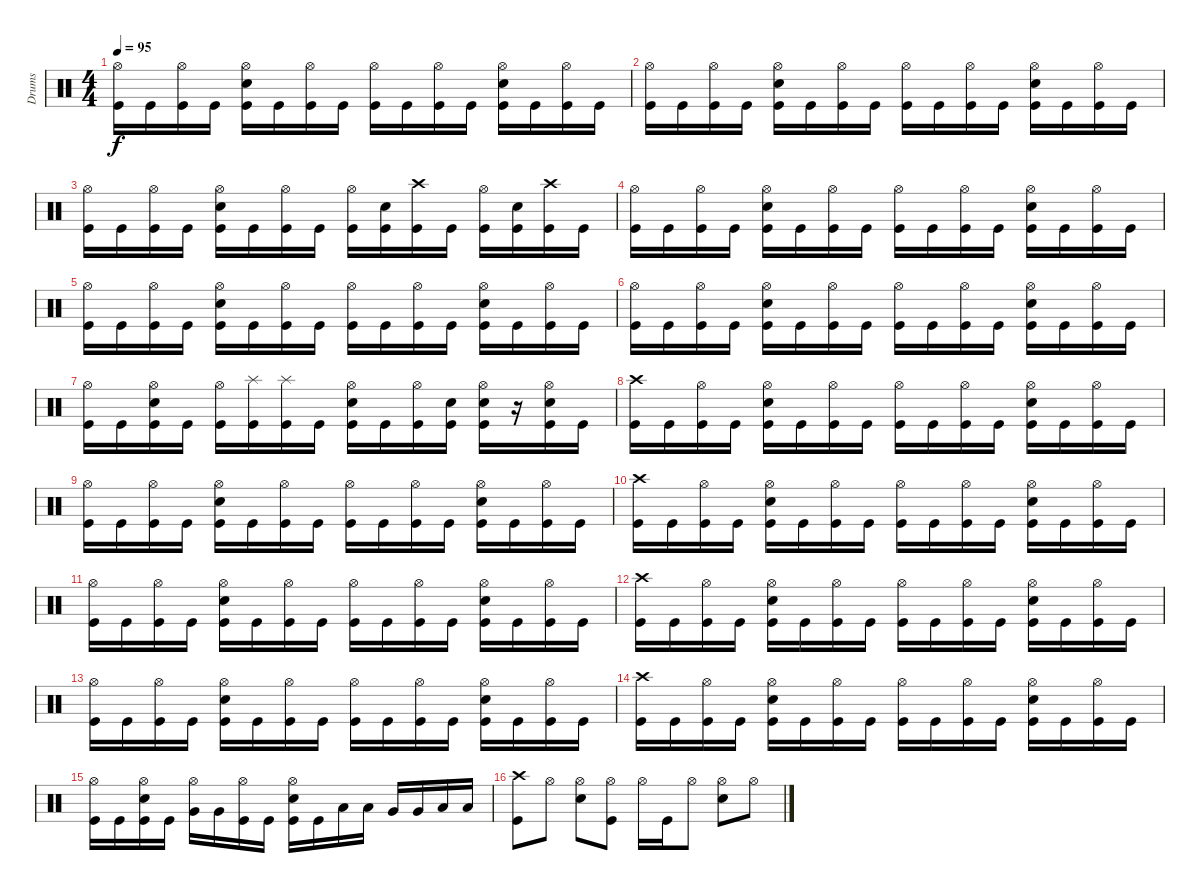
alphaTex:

\track ("Drums" "Drums") {instrument percussion}
\staff {score}
\articulation defaults
\ts (4 4)
\tempo 95
\clef neutral
\ks c
("Hi-Hat (open)" "Kick (hit)").16{dy f} "Kick (hit)".16 ("Hi-Hat (open)" "Kick (hit)").16 "Kick (hit)".16 ("Hi-Hat (open)" "Electric Snare (hit)" "Kick (hit)").16 "Kick (hit)".16 ("Hi-Hat (open)" "Kick (hit)").16 "Kick (hit)".16 ("Hi-Hat (open)" "Kick (hit)").16 "Kick (hit)".16 ("Hi-Hat (open)" "Kick (hit)").16 "Kick (hit)".16 ("Hi-Hat (open)" "Electric Snare (hit)" "Kick (hit)").16 "Kick (hit)".16 ("Hi-Hat (open)" "Kick (hit)").16 "Kick (hit)".16 |
("Hi-Hat (open)" "Kick (hit)").16 "Kick (hit)".16 ("Hi-Hat (open)" "Kick (hit)").16 "Kick (hit)".16 ("Hi-Hat (open)" "Electric Snare (hit)" "Kick (hit)").16 "Kick (hit)".16 ("Hi-Hat (open)" "Kick (hit)").16 "Kick (hit)".16 ("Hi-Hat (open)" "Kick (hit)").16 "Kick (hit)".16 ("Hi-Hat (open)" "Kick (hit)").16 "Kick (hit)".16 ("Hi-Hat (open)" "Electric Snare (hit)" "Kick (hit)").16 "Kick (hit)".16 ("Hi-Hat (open)" "Kick (hit)").16 "Kick (hit)".16 |
("Hi-Hat (open)" "Kick (hit)").16 "Kick (hit)".16 ("Hi-Hat (open)" "Kick (hit)").16 "Kick (hit)".16 ("Hi-Hat (open)" "Electric Snare (hit)" "Kick (hit)").16 "Kick (hit)".16 ("Hi-Hat (open)" "Kick (hit)").16 "Kick (hit)".16 ("Hi-Hat (open)" "Kick (hit)").16 ("Electric Snare (hit)" "Kick (hit)").16 ("Crash high (hit)" "Kick (hit)").16 "Kick (hit)".16 ("Hi-Hat (open)" "Kick (hit)").16 ("Electric Snare (hit)" "Kick (hit)").16 ("Crash high (hit)" "Kick (hit)").16 "Kick (hit)".16 |
("Hi-Hat (open)" "Kick (hit)").16 "Kick (hit)".16 ("Hi-Hat (open)" "Kick (hit)").16 "Kick (hit)".16 ("Hi-Hat (open)" "Electric Snare (hit)" "Kick (hit)").16 "Kick (hit)".16 ("Hi-Hat (open)" "Kick (hit)").16 "Kick (hit)".16 ("Hi-Hat (open)" "Kick (hit)").16 "Kick (hit)".16 ("Hi-Hat (open)" "Kick (hit)").16 "Kick (hit)".16 ("Hi-Hat (open)" "Electric Snare (hit)" "Kick (hit)").16 "Kick (hit)".16 ("Hi-Hat (open)" "Kick (hit)").16 "Kick (hit)".16 |
("Hi-Hat (open)" "Kick (hit)").16 "Kick (hit)".16 ("Hi-Hat (open)" "Kick (hit)").16 "Kick (hit)".16 ("Hi-Hat (open)" "Electric Snare (hit)" "Kick (hit)").16 "Kick (hit)".16 ("Hi-Hat (open)" "Kick (hit)").16 "Kick (hit)".16 ("Hi-Hat (open)" "Kick (hit)").16 "Kick (hit)".16 ("Hi-Hat (open)" "Kick (hit)").16 "Kick (hit)".16 ("Hi-Hat (open)" "Electric Snare (hit)" "Kick (hit)").16 "Kick (hit)".16 ("Hi-Hat (open)" "Kick (hit)").16 "Kick (hit)".16 |
("Hi-Hat (open)" "Kick (hit)").16 "Kick (hit)".16 ("Hi-Hat (open)" "Kick (hit)").16 "Kick (hit)".16 ("Hi-Hat (open)" "Electric Snare (hit)" "Kick (hit)").16 "Kick (hit)".16 ("Hi-Hat (open)" "Kick (hit)").16 "Kick (hit)".16 ("Hi-Hat (open)" "Kick (hit)").16 "Kick (hit)".16 ("Hi-Hat (open)" "Kick (hit)").16 "Kick (hit)".16 ("Hi-Hat (open)" "Electric Snare (hit)" "Kick (hit)").16 "Kick (hit)".16 ("Hi-Hat (open)" "Kick (hit)").16 "Kick (hit)".16 |
("Hi-Hat (open)" "Kick (hit)").16 "Kick (hit)".16 ("Hi-Hat (open)" "Electric Snare (hit)" "Kick (hit)").16 "Kick (hit)".16 ("Hi-Hat (open)" "Kick (hit)").16 ("Splash (hit)" "Kick (hit)").16{volume 16} ("Splash (hit)" "Kick (hit)").16 "Kick (hit)".16{volume 12} ("Hi-Hat (open)" "Electric Snare (hit)" "Kick (hit)").16 "Kick (hit)".16 ("Hi-Hat (open)" "Kick (hit)").16 ("Electric Snare (hit)" "Kick (hit)").16 ("Hi-Hat (open)" "Electric Snare (hit)" "Kick (hit)").16 r.16 ("Hi-Hat (open)" "Electric Snare (hit)" "Kick (hit)").16 "Kick (hit)".16 |
("Crash high (hit)" "Kick (hit)").16 "Kick (hit)".16 ("Hi-Hat (open)" "Kick (hit)").16 "Kick (hit)".16 ("Hi-Hat (open)" "Electric Snare (hit)" "Kick (hit)").16 "Kick (hit)".16 ("Hi-Hat (open)" "Kick (hit)").16 "Kick (hit)".16 ("Hi-Hat (open)" "Kick (hit)").16 "Kick (hit)".16 ("Hi-Hat (open)" "Kick (hit)").16 "Kick (hit)".16 ("Hi-Hat (open)" "Electric Snare (hit)" "Kick (hit)").16 "Kick (hit)".16 ("Hi-Hat (open)" "Kick (hit)").16 "Kick (hit)".16 |
("Hi-Hat (open)" "Kick (hit)").16 "Kick (hit)".16 ("Hi-Hat (open)" "Kick (hit)").16 "Kick (hit)".16 ("Hi-Hat (open)" "Electric Snare (hit)" "Kick (hit)").16 "Kick (hit)".16 ("Hi-Hat (open)" "Kick (hit)").16 "Kick (hit)".16 ("Hi-Hat (open)" "Kick (hit)").16 "Kick (hit)".16 ("Hi-Hat (open)" "Kick (hit)").16 "Kick (hit)".16 ("Hi-Hat (open)" "Electric Snare (hit)" "Kick (hit)").16 "Kick (hit)".16 ("Hi-Hat (open)" "Kick (hit)").16 "Kick (hit)".16 |
("Crash high (hit)" "Kick (hit)").16 "Kick (hit)".16 ("Hi-Hat (open)" "Kick (hit)").16 "Kick (hit)".16 ("Hi-Hat (open)" "Electric Snare (hit)" "Kick (hit)").16 "Kick (hit)".16 ("Hi-Hat (open)" "Kick (hit)").16 "Kick (hit)".16 ("Hi-Hat (open)" "Kick (hit)").16 "Kick (hit)".16 ("Hi-Hat (open)" "Kick (hit)").16 "Kick (hit)".16 ("Hi-Hat (open)" "Electric Snare (hit)" "Kick (hit)").16 "Kick (hit)".16 ("Hi-Hat (open)" "Kick (hit)").16 "Kick (hit)".16 |
("Hi-Hat (open)" "Kick (hit)").16 "Kick (hit)".16 ("Hi-Hat (open)" "Kick (hit)").16 "Kick (hit)".16 ("Hi-Hat (open)" "Electric Snare (hit)" "Kick (hit)").16 "Kick (hit)".16 ("Hi-Hat (open)" "Kick (hit)").16 "Kick (hit)".16 ("Hi-Hat (open)" "Kick (hit)").16 "Kick (hit)".16 ("Hi-Hat (open)" "Kick (hit)").16 "Kick (hit)".16 ("Hi-Hat (open)" "Electric Snare (hit)" "Kick (hit)").16 "Kick (hit)".16 ("Hi-Hat (open)" "Kick (hit)").16 "Kick (hit)".16 |
("Crash high (hit)" "Kick (hit)").16 "Kick (hit)".16 ("Hi-Hat (open)" "Kick (hit)").16 "Kick (hit)".16 ("Hi-Hat (open)" "Electric Snare (hit)" "Kick (hit)").16 "Kick (hit)".16 ("Hi-Hat (open)" "Kick (hit)").16 "Kick (hit)".16 ("Hi-Hat (open)" "Kick (hit)").16 "Kick (hit)".16 ("Hi-Hat (open)" "Kick (hit)").16 "Kick (hit)".16 ("Hi-Hat (open)" "Electric Snare (hit)" "Kick (hit)").16 "Kick (hit)".16 ("Hi-Hat (open)" "Kick (hit)").16 "Kick (hit)".16 |
("Hi-Hat (open)" "Kick (hit)").16 "Kick (hit)".16 ("Hi-Hat (open)" "Kick (hit)").16 "Kick (hit)".16 ("Hi-Hat (open)" "Electric Snare (hit)" "Kick (hit)").16 "Kick (hit)".16 ("Hi-Hat (open)" "Kick (hit)").16 "Kick (hit)".16 ("Hi-Hat (open)" "Kick (hit)").16 "Kick (hit)".16 ("Hi-Hat (open)" "Kick (hit)").16 "Kick (hit)".16 ("Hi-Hat (open)" "Electric Snare (hit)" "Kick (hit)").16 "Kick (hit)".16 ("Hi-Hat (open)" "Kick (hit)").16 "Kick (hit)".16 |
("Crash high (hit)" "Kick (hit)").16 "Kick (hit)".16 ("Hi-Hat (open)" "Kick (hit)").16 "Kick (hit)".16 ("Hi-Hat (open)" "Electric Snare (hit)" "Kick (hit)").16 "Kick (hit)".16 ("Hi-Hat (open)" "Kick (hit)").16 "Kick (hit)".16 ("Hi-Hat (open)" "Kick (hit)").16 "Kick (hit)".16 ("Hi-Hat (open)" "Kick (hit)").16 "Kick (hit)".16 ("Hi-Hat (open)" "Electric Snare (hit)" "Kick (hit)").16 "Kick (hit)".16 ("Hi-Hat (open)" "Kick (hit)").16 "Kick (hit)".16 |
("Hi-Hat (open)" "Kick (hit)").16 "Kick (hit)".16 ("Hi-Hat (open)" "Electric Snare (hit)" "Kick (hit)").16 "Kick (hit)".16 ("Hi-Hat (open)" "Very Low Tom (hit)").16 "Very Low Tom (hit)".16 ("Hi-Hat (open)" "Kick (hit)").16 "Kick (hit)".16 ("Hi-Hat (open)" "Electric Snare (hit)" "Kick (hit)").16 "Kick (hit)".16 "Low Tom (hit)".16 "Low Tom (hit)".16 "Very Low Tom (hit)".16 "Very Low Tom (hit)".16 "Low Floor Tom (hit)".16 "Low Floor Tom (hit)".16 |
("Crash high (hit)" "Kick (hit)").8 "Hi-Hat (open)".8 ("Hi-Hat (open)" "Electric Snare (hit)").8 ("Hi-Hat (open)" "Kick (hit)").8 "Hi-Hat (open)".16 "Kick (hit)".16 "Hi-Hat (open)".8 ("Hi-Hat (open)" "Electric Snare (hit)").8 "Hi-Hat (open)".8
